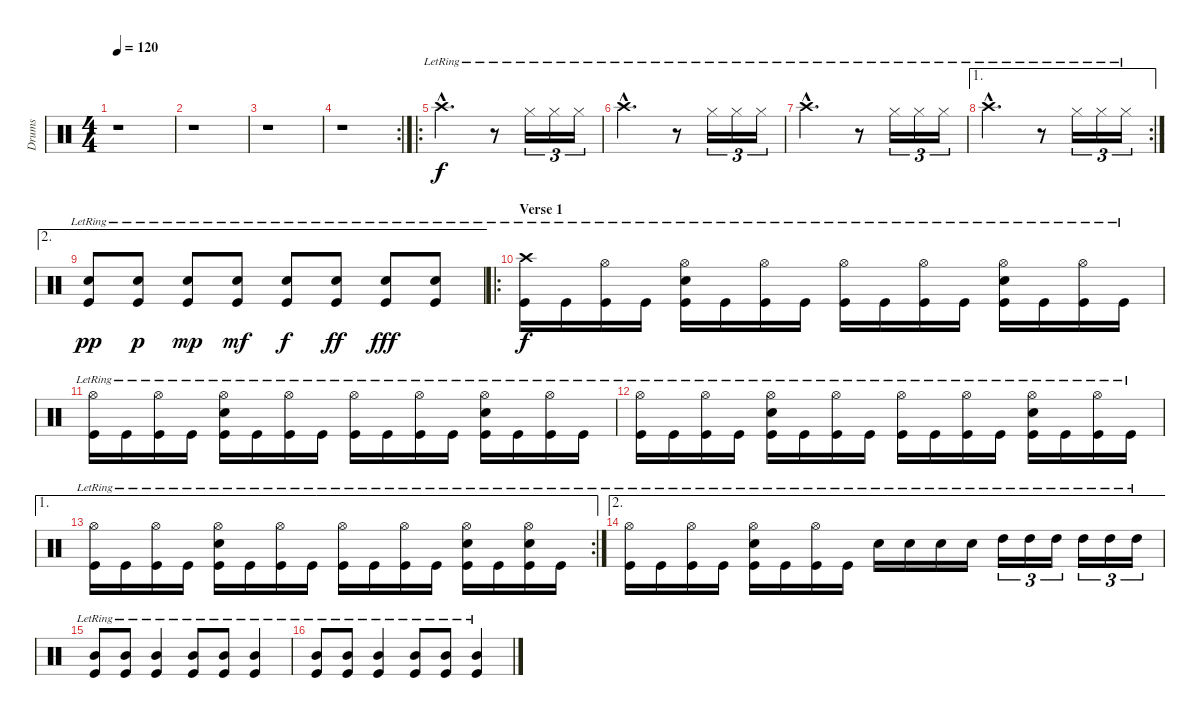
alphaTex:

\track ("Drums" "Drums") {instrument percussion}
\staff {score}
\articulation defaults
\ts (4 4)
\tempo 120
\clef neutral
\ks c
r.1{dy f} |
r.1 |
r.1 |
\rc 2
r.1 |
\ro "Crash high (hit)"{hac lr}.2{d}
r.8 "Hi-Hat (closed)"{lr}.16{tu (3 2)} "Hi-Hat (closed)"{lr}.16{tu (3 2)} "Hi-Hat (closed)"{lr}.16{tu (3 2)} |
"Crash high (hit)"{hac lr}.2{d} r.8 "Hi-Hat (closed)"{lr}.16{tu (3 2)} "Hi-Hat (closed)"{lr}.16{tu (3 2)} "Hi-Hat (closed)"{lr}.16{tu (3 2)} |
"Crash high (hit)"{hac lr}.2{d} r.8 "Hi-Hat (closed)"{lr}.16{tu (3 2)} "Hi-Hat (closed)"{lr}.16{tu (3 2)} "Hi-Hat (closed)"{lr}.16{tu (3 2)} |
\ae 1
\rc 2 "Crash high (hit)"{hac lr}.2{d}
r.8 "Hi-Hat (closed)"{lr}.16{tu (3 2)} "Hi-Hat (closed)"{lr}.16{tu (3 2)} "Hi-Hat (closed)"{lr}.16{tu (3 2)} |
\ae 2
("Snare (hit) 2"{lr} "Kick (hit)"{lr}).8{dy pp} ("Snare (hit) 2"{lr} "Kick (hit)"{lr}).8{dy p} ("Snare (hit) 2"{lr} "Kick (hit)"{lr}).8{dy mp} ("Snare (hit) 2"{lr} "Kick (hit)"{lr}).8{dy mf} ("Snare (hit) 2"{lr} "Kick (hit)"{lr}).8{dy f} ("Snare (hit) 2"{lr} "Kick (hit)"{lr}).8{dy ff} ("Snare (hit) 2"{lr} "Kick (hit)"{lr}).8{dy fff} ("Snare (hit) 2"{lr} "Kick (hit)"{lr}).8 |
\ro
\section ("" "Verse 1")
("Crash high (hit)"{lr} "Kick (hit)"{lr}).16{dy f} "Kick (hit)"{lr}.16 ("Hi-Hat (open)"{lr} "Kick (hit)"{lr}).16 "Kick (hit)"{lr}.16 ("Hi-Hat (open)"{lr} "Snare (hit) 2"{lr} "Kick (hit)"{lr}).16 "Kick (hit)"{lr}.16 ("Hi-Hat (open)"{lr} "Kick (hit)"{lr}).16 "Kick (hit)"{lr}.16 ("Hi-Hat (open)"{lr} "Kick (hit)"{lr}).16 "Kick (hit)"{lr}.16 ("Hi-Hat (open)"{lr} "Kick (hit)"{lr}).16 "Kick (hit)"{lr}.16 ("Hi-Hat (open)"{lr} "Snare (hit) 2"{lr} "Kick (hit)"{lr}).16 "Kick (hit)"{lr}.16 ("Hi-Hat (open)"{lr} "Kick (hit)"{lr}).16 "Kick (hit)"{lr}.16 |
("Hi-Hat (open)"{lr} "Kick (hit)"{lr}).16 "Kick (hit)"{lr}.16 ("Hi-Hat (open)"{lr} "Kick (hit)"{lr}).16 "Kick (hit)"{lr}.16 ("Hi-Hat (open)"{lr} "Snare (hit) 2"{lr} "Kick (hit)"{lr}).16 "Kick (hit)"{lr}.16 ("Hi-Hat (open)"{lr} "Kick (hit)"{lr}).16 "Kick (hit)"{lr}.16 ("Hi-Hat (open)"{lr} "Kick (hit)"{lr}).16 "Kick (hit)"{lr}.16 ("Hi-Hat (open)"{lr} "Kick (hit)"{lr}).16 "Kick (hit)"{lr}.16 ("Hi-Hat (open)"{lr} "Snare (hit) 2"{lr} "Kick (hit)"{lr}).16 "Kick (hit)"{lr}.16 ("Hi-Hat (open)"{lr} "Kick (hit)"{lr}).16 "Kick (hit)"{lr}.16 |
("Hi-Hat (open)"{lr} "Kick (hit)"{lr}).16 "Kick (hit)"{lr}.16 ("Hi-Hat (open)"{lr} "Kick (hit)"{lr}).16 "Kick (hit)"{lr}.16 ("Hi-Hat (open)"{lr} "Snare (hit) 2"{lr} "Kick (hit)"{lr}).16 "Kick (hit)"{lr}.16 ("Hi-Hat (open)"{lr} "Kick (hit)"{lr}).16 "Kick (hit)"{lr}.16 ("Hi-Hat (open)"{lr} "Kick (hit)"{lr}).16 "Kick (hit)"{lr}.16 ("Hi-Hat (open)"{lr} "Kick (hit)"{lr}).16 "Kick (hit)"{lr}.16 ("Hi-Hat (open)"{lr} "Snare (hit) 2"{lr} "Kick (hit)"{lr}).16 "Kick (hit)"{lr}.16 ("Hi-Hat (open)"{lr} "Kick (hit)"{lr}).16 "Kick (hit)"{lr}.16 |
\ae 1
\rc 2
("Hi-Hat (open)"{lr} "Kick (hit)"{lr}).16 "Kick (hit)"{lr}.16 ("Hi-Hat (open)"{lr} "Kick (hit)"{lr}).16 "Kick (hit)"{lr}.16 ("Hi-Hat (open)"{lr} "Snare (hit) 2"{lr} "Kick (hit)"{lr}).16 "Kick (hit)"{lr}.16 ("Hi-Hat (open)"{lr} "Kick (hit)"{lr}).16 "Kick (hit)"{lr}.16 ("Hi-Hat (open)"{lr} "Kick (hit)"{lr}).16 "Kick (hit)"{lr}.16 ("Hi-Hat (open)"{lr} "Kick (hit)"{lr}).16 "Kick (hit)"{lr}.16 ("Hi-Hat (open)"{lr} "Snare (hit) 2"{lr} "Kick (hit)"{lr}).16 "Kick (hit)"{lr}.16 ("Hi-Hat (open)"{lr} "Snare (hit) 2"{lr} "Kick (hit)"{lr}).16 "Kick (hit)"{lr}.16 |
\ae 2
("Hi-Hat (open)"{lr} "Kick (hit)"{lr}).16 "Kick (hit)"{lr}.16 ("Hi-Hat (open)"{lr} "Kick (hit)"{lr}).16 "Kick (hit)"{lr}.16 ("Hi-Hat (open)"{lr} "Snare (hit) 2"{lr} "Kick (hit)"{lr}).16 "Kick (hit)"{lr}.16 ("Hi-Hat (open)"{lr} "Kick (hit)"{lr}).16 "Kick (hit)"{lr}.16 "Snare (hit) 2"{lr}.16 "Snare (hit) 2"{lr}.16 "Snare (hit) 2"{lr}.16 "Snare (hit) 2"{lr}.16 "High Tom (hit)"{lr}.16{tu (3 2)} "High Tom (hit)"{lr}.16{tu (3 2)} "High Tom (hit)"{lr}.16{tu (3 2)} "High Tom (hit)"{lr}.16{tu (3 2)} "High Tom (hit)"{lr}.16{tu (3 2)} "High Tom (hit)"{lr}.16{tu (3 2)} |
("Mid Tom (hit)"{lr} "Kick (hit)"{lr}).8 ("Mid Tom (hit)"{lr} "Kick (hit)"{lr}).8 ("Mid Tom (hit)"{lr} "Kick (hit)"{lr}).4 ("Mid Tom (hit)"{lr} "Kick (hit)"{lr}).8 ("Mid Tom (hit)"{lr} "Kick (hit)"{lr}).8 ("Mid Tom (hit)"{lr} "Kick (hit)"{lr}).4 |
("Mid Tom (hit)"{lr} "Kick (hit)"{lr}).8 ("Mid Tom (hit)"{lr} "Kick (hit)"{lr}).8 ("Mid Tom (hit)"{lr} "Kick (hit)"{lr}).4 ("Mid Tom (hit)"{lr} "Kick (hit)"{lr}).8 ("Mid Tom (hit)"{lr} "Kick (hit)"{lr}).8 ("Mid Tom (hit)"{lr} "Kick (hit)"{lr}).4
